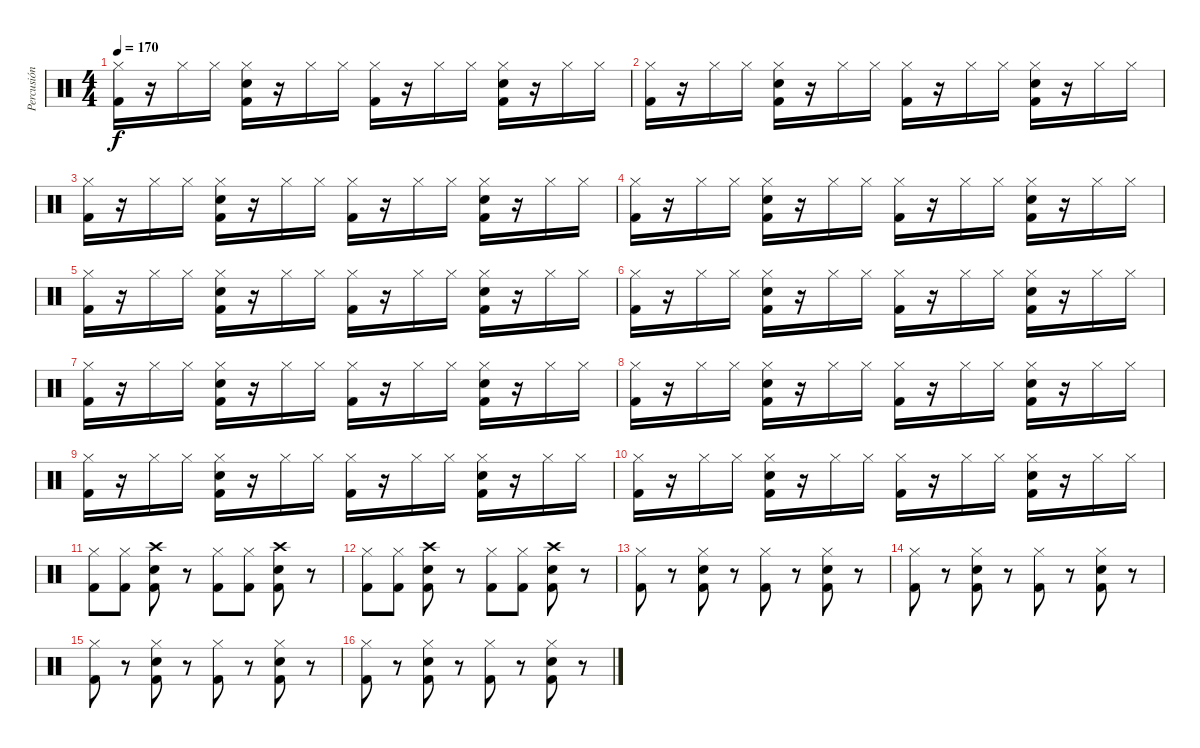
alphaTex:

\track ("Percusión" "Percusión") {instrument percussion}
\staff {score}
\articulation defaults
\ts (4 4)
\tempo 170
\clef neutral
\ks c
("Hi-Hat (closed)" "Kick (hit) 2").16{dy f} r.16 "Hi-Hat (closed)".16 "Hi-Hat (closed)".16 ("Snare (hit) 2" "Hi-Hat (closed)" "Kick (hit) 2").16 r.16 "Hi-Hat (closed)".16 "Hi-Hat (closed)".16 ("Hi-Hat (closed)" "Kick (hit) 2").16 r.16 "Hi-Hat (closed)".16 "Hi-Hat (closed)".16 ("Snare (hit) 2" "Hi-Hat (closed)" "Kick (hit) 2").16 r.16 "Hi-Hat (closed)".16 "Hi-Hat (closed)".16 |
("Hi-Hat (closed)" "Kick (hit) 2").16 r.16 "Hi-Hat (closed)".16 "Hi-Hat (closed)".16 ("Snare (hit) 2" "Hi-Hat (closed)" "Kick (hit) 2").16 r.16 "Hi-Hat (closed)".16 "Hi-Hat (closed)".16 ("Hi-Hat (closed)" "Kick (hit) 2").16 r.16 "Hi-Hat (closed)".16 "Hi-Hat (closed)".16 ("Snare (hit) 2" "Hi-Hat (closed)" "Kick (hit) 2").16 r.16 "Hi-Hat (closed)".16 "Hi-Hat (closed)".16 |
("Hi-Hat (closed)" "Kick (hit) 2").16 r.16 "Hi-Hat (closed)".16 "Hi-Hat (closed)".16 ("Snare (hit) 2" "Hi-Hat (closed)" "Kick (hit) 2").16 r.16 "Hi-Hat (closed)".16 "Hi-Hat (closed)".16 ("Hi-Hat (closed)" "Kick (hit) 2").16 r.16 "Hi-Hat (closed)".16 "Hi-Hat (closed)".16 ("Snare (hit) 2" "Hi-Hat (closed)" "Kick (hit) 2").16 r.16 "Hi-Hat (closed)".16 "Hi-Hat (closed)".16 |
("Hi-Hat (closed)" "Kick (hit) 2").16 r.16 "Hi-Hat (closed)".16 "Hi-Hat (closed)".16 ("Snare (hit) 2" "Hi-Hat (closed)" "Kick (hit) 2").16 r.16 "Hi-Hat (closed)".16 "Hi-Hat (closed)".16 ("Hi-Hat (closed)" "Kick (hit) 2").16 r.16 "Hi-Hat (closed)".16 "Hi-Hat (closed)".16 ("Snare (hit) 2" "Hi-Hat (closed)" "Kick (hit) 2").16 r.16 "Hi-Hat (closed)".16 "Hi-Hat (closed)".16 |
("Hi-Hat (closed)" "Kick (hit) 2").16 r.16 "Hi-Hat (closed)".16 "Hi-Hat (closed)".16 ("Snare (hit) 2" "Hi-Hat (closed)" "Kick (hit) 2").16 r.16 "Hi-Hat (closed)".16 "Hi-Hat (closed)".16 ("Hi-Hat (closed)" "Kick (hit) 2").16 r.16 "Hi-Hat (closed)".16 "Hi-Hat (closed)".16 ("Snare (hit) 2" "Hi-Hat (closed)" "Kick (hit) 2").16 r.16 "Hi-Hat (closed)".16 "Hi-Hat (closed)".16 |
("Hi-Hat (closed)" "Kick (hit) 2").16 r.16 "Hi-Hat (closed)".16 "Hi-Hat (closed)".16 ("Snare (hit) 2" "Hi-Hat (closed)" "Kick (hit) 2").16 r.16 "Hi-Hat (closed)".16 "Hi-Hat (closed)".16 ("Hi-Hat (closed)" "Kick (hit) 2").16 r.16 "Hi-Hat (closed)".16 "Hi-Hat (closed)".16 ("Snare (hit) 2" "Hi-Hat (closed)" "Kick (hit) 2").16 r.16 "Hi-Hat (closed)".16 "Hi-Hat (closed)".16 |
("Hi-Hat (closed)" "Kick (hit) 2").16 r.16 "Hi-Hat (closed)".16 "Hi-Hat (closed)".16 ("Snare (hit) 2" "Hi-Hat (closed)" "Kick (hit) 2").16 r.16 "Hi-Hat (closed)".16 "Hi-Hat (closed)".16 ("Hi-Hat (closed)" "Kick (hit) 2").16 r.16 "Hi-Hat (closed)".16 "Hi-Hat (closed)".16 ("Snare (hit) 2" "Hi-Hat (closed)" "Kick (hit) 2").16 r.16 "Hi-Hat (closed)".16 "Hi-Hat (closed)".16 |
("Hi-Hat (closed)" "Kick (hit) 2").16 r.16 "Hi-Hat (closed)".16 "Hi-Hat (closed)".16 ("Snare (hit) 2" "Hi-Hat (closed)" "Kick (hit) 2").16 r.16 "Hi-Hat (closed)".16 "Hi-Hat (closed)".16 ("Hi-Hat (closed)" "Kick (hit) 2").16 r.16 "Hi-Hat (closed)".16 "Hi-Hat (closed)".16 ("Snare (hit) 2" "Hi-Hat (closed)" "Kick (hit) 2").16 r.16 "Hi-Hat (closed)".16 "Hi-Hat (closed)".16 |
("Hi-Hat (closed)" "Kick (hit) 2").16 r.16 "Hi-Hat (closed)".16 "Hi-Hat (closed)".16 ("Snare (hit) 2" "Hi-Hat (closed)" "Kick (hit) 2").16 r.16 "Hi-Hat (closed)".16 "Hi-Hat (closed)".16 ("Hi-Hat (closed)" "Kick (hit) 2").16 r.16 "Hi-Hat (closed)".16 "Hi-Hat (closed)".16 ("Snare (hit) 2" "Hi-Hat (closed)" "Kick (hit) 2").16 r.16 "Hi-Hat (closed)".16 "Hi-Hat (closed)".16 |
("Hi-Hat (closed)" "Kick (hit) 2").16 r.16 "Hi-Hat (closed)".16 "Hi-Hat (closed)".16 ("Snare (hit) 2" "Hi-Hat (closed)" "Kick (hit) 2").16 r.16 "Hi-Hat (closed)".16 "Hi-Hat (closed)".16 ("Hi-Hat (closed)" "Kick (hit) 2").16 r.16 "Hi-Hat (closed)".16 "Hi-Hat (closed)".16 ("Snare (hit) 2" "Hi-Hat (closed)" "Kick (hit) 2").16 r.16 "Hi-Hat (closed)".16 "Hi-Hat (closed)".16 |
("Hi-Hat (closed)" "Kick (hit) 2").8 ("Hi-Hat (closed)" "Kick (hit) 2").8 ("Crash high (hit)" "Snare (hit) 2" "Kick (hit) 2").8 r.8 ("Hi-Hat (closed)" "Kick (hit) 2").8 ("Hi-Hat (closed)" "Kick (hit) 2").8 ("Crash high (hit)" "Snare (hit) 2" "Kick (hit) 2").8 r.8 |
("Hi-Hat (closed)" "Kick (hit) 2").8 ("Hi-Hat (closed)" "Kick (hit) 2").8 ("Crash high (hit)" "Snare (hit) 2" "Kick (hit) 2").8 r.8 ("Hi-Hat (closed)" "Kick (hit) 2").8 ("Hi-Hat (closed)" "Kick (hit) 2").8 ("Crash high (hit)" "Snare (hit) 2" "Kick (hit) 2").8 r.8 |
("Hi-Hat (closed)" "Kick (hit) 2").8 r.8 ("Snare (hit) 2" "Hi-Hat (closed)" "Kick (hit) 2").8 r.8 ("Hi-Hat (closed)" "Kick (hit) 2").8 r.8 ("Snare (hit) 2" "Hi-Hat (closed)" "Kick (hit) 2").8 r.8 |
("Hi-Hat (closed)" "Kick (hit) 2").8 r.8 ("Snare (hit) 2" "Hi-Hat (closed)" "Kick (hit) 2").8 r.8 ("Hi-Hat (closed)" "Kick (hit) 2").8 r.8 ("Snare (hit) 2" "Hi-Hat (closed)" "Kick (hit) 2").8 r.8 |
("Hi-Hat (closed)" "Kick (hit) 2").8 r.8 ("Snare (hit) 2" "Hi-Hat (closed)" "Kick (hit) 2").8 r.8 ("Hi-Hat (closed)" "Kick (hit) 2").8 r.8 ("Snare (hit) 2" "Hi-Hat (closed)" "Kick (hit) 2").8 r.8 |
("Hi-Hat (closed)" "Kick (hit) 2").8 r.8 ("Snare (hit) 2" "Hi-Hat (closed)" "Kick (hit) 2").8 r.8 ("Hi-Hat (closed)" "Kick (hit) 2").8 r.8 ("Snare (hit) 2" "Hi-Hat (closed)" "Kick (hit) 2").8 r.8
